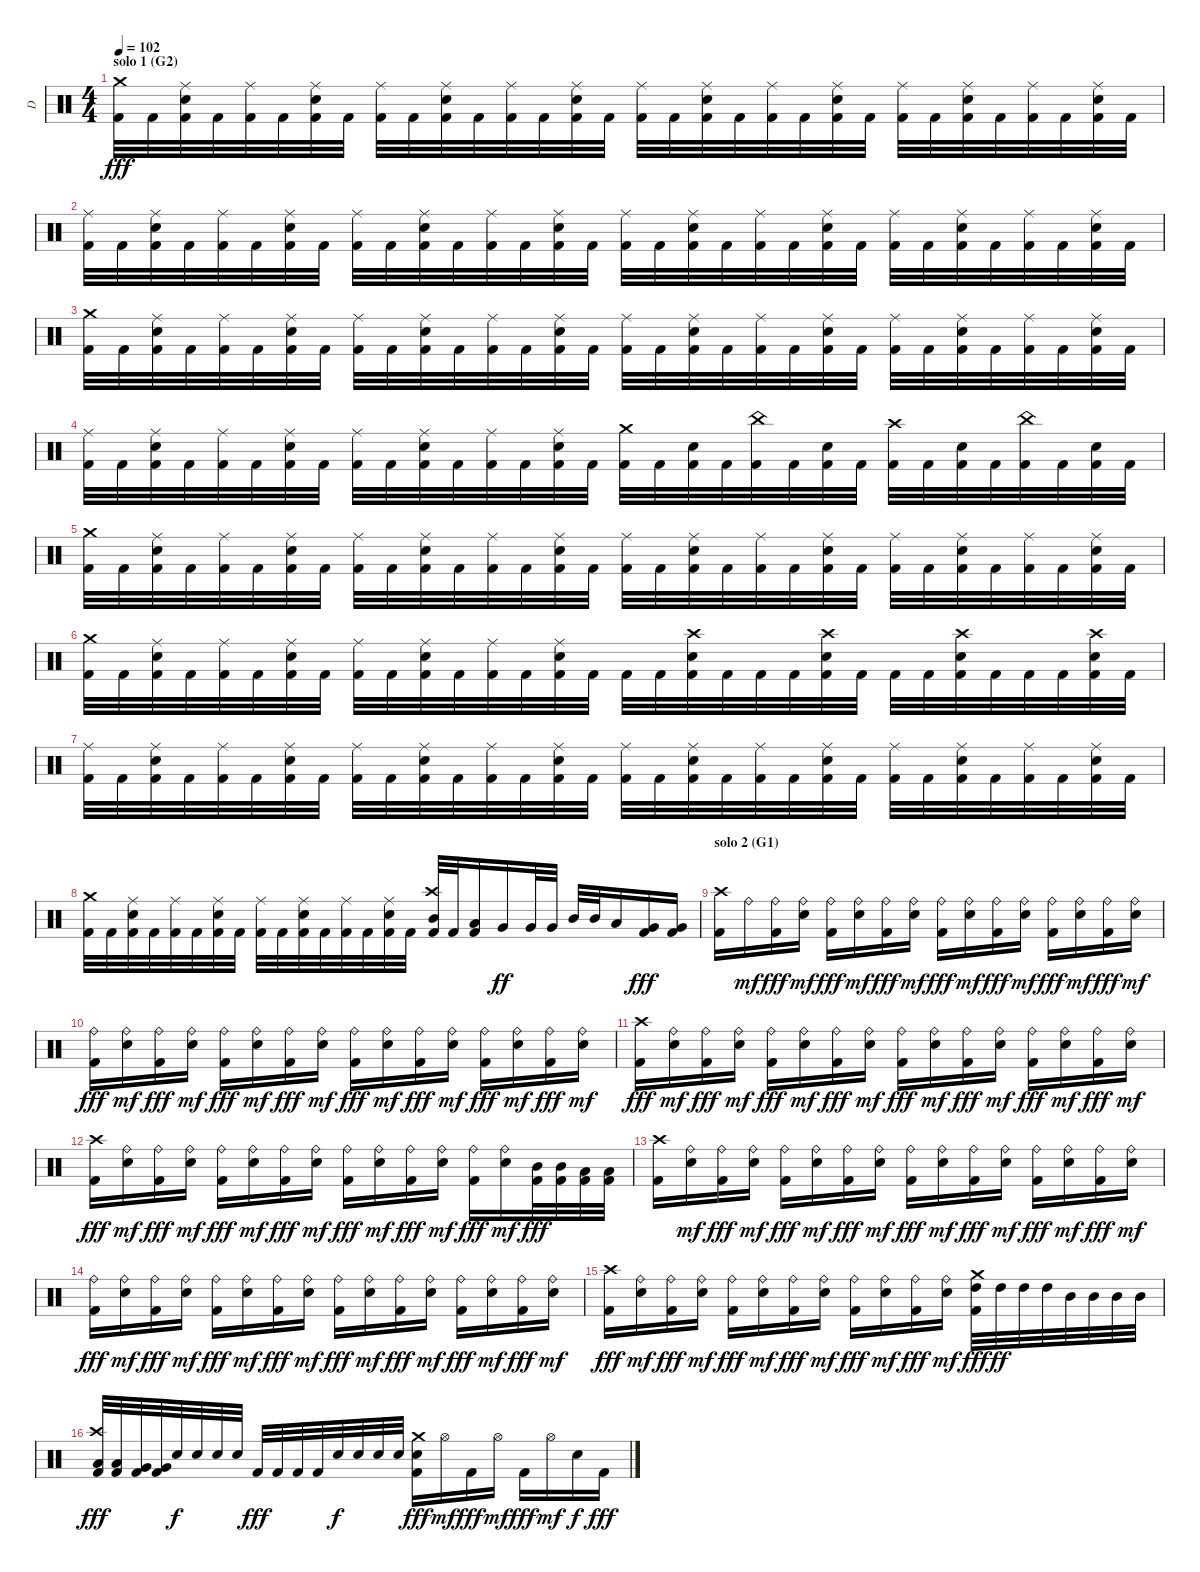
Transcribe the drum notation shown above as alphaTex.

\track ("D" "D") {instrument percussion}
\staff {score}
\articulation defaults
\ts (4 4)
\section ("" "solo 1 (G2)")
\tempo 102
\clef neutral
\ks c
("Crash medium (hit)" "Kick (hit) 2").32{dy fff} "Kick (hit) 2".32 ("Ride (middle)" "Snare (hit) 2" "Kick (hit) 2").32 "Kick (hit) 2".32 ("Ride (middle)" "Kick (hit) 2").32 "Kick (hit) 2".32 ("Ride (middle)" "Snare (hit) 2" "Kick (hit) 2").32 "Kick (hit) 2".32 ("Ride (middle)" "Kick (hit) 2").32 "Kick (hit) 2".32 ("Ride (middle)" "Snare (hit) 2" "Kick (hit) 2").32 "Kick (hit) 2".32 ("Ride (middle)" "Kick (hit) 2").32 "Kick (hit) 2".32 ("Ride (middle)" "Snare (hit) 2" "Kick (hit) 2").32 "Kick (hit) 2".32 ("Ride (middle)" "Kick (hit) 2").32 "Kick (hit) 2".32 ("Ride (middle)" "Snare (hit) 2" "Kick (hit) 2").32 "Kick (hit) 2".32 ("Ride (middle)" "Kick (hit) 2").32 "Kick (hit) 2".32 ("Ride (middle)" "Snare (hit) 2" "Kick (hit) 2").32 "Kick (hit) 2".32 ("Ride (middle)" "Kick (hit) 2").32 "Kick (hit) 2".32 ("Ride (middle)" "Snare (hit) 2" "Kick (hit) 2").32 "Kick (hit) 2".32 ("Ride (middle)" "Kick (hit) 2").32 "Kick (hit) 2".32 ("Ride (middle)" "Snare (hit) 2" "Kick (hit) 2").32 "Kick (hit) 2".32 |
("Ride (middle)" "Kick (hit) 2").32 "Kick (hit) 2".32 ("Ride (middle)" "Snare (hit) 2" "Kick (hit) 2").32 "Kick (hit) 2".32 ("Ride (middle)" "Kick (hit) 2").32 "Kick (hit) 2".32 ("Ride (middle)" "Snare (hit) 2" "Kick (hit) 2").32 "Kick (hit) 2".32 ("Ride (middle)" "Kick (hit) 2").32 "Kick (hit) 2".32 ("Ride (middle)" "Snare (hit) 2" "Kick (hit) 2").32 "Kick (hit) 2".32 ("Ride (middle)" "Kick (hit) 2").32 "Kick (hit) 2".32 ("Ride (middle)" "Snare (hit) 2" "Kick (hit) 2").32 "Kick (hit) 2".32 ("Ride (middle)" "Kick (hit) 2").32 "Kick (hit) 2".32 ("Ride (middle)" "Snare (hit) 2" "Kick (hit) 2").32 "Kick (hit) 2".32 ("Ride (middle)" "Kick (hit) 2").32 "Kick (hit) 2".32 ("Ride (middle)" "Snare (hit) 2" "Kick (hit) 2").32 "Kick (hit) 2".32 ("Ride (middle)" "Kick (hit) 2").32 "Kick (hit) 2".32 ("Ride (middle)" "Snare (hit) 2" "Kick (hit) 2").32 "Kick (hit) 2".32 ("Ride (middle)" "Kick (hit) 2").32 "Kick (hit) 2".32 ("Ride (middle)" "Snare (hit) 2" "Kick (hit) 2").32 "Kick (hit) 2".32 |
("Crash medium (hit)" "Kick (hit) 2").32 "Kick (hit) 2".32 ("Ride (middle)" "Snare (hit) 2" "Kick (hit) 2").32 "Kick (hit) 2".32 ("Ride (middle)" "Kick (hit) 2").32 "Kick (hit) 2".32 ("Ride (middle)" "Snare (hit) 2" "Kick (hit) 2").32 "Kick (hit) 2".32 ("Ride (middle)" "Kick (hit) 2").32 "Kick (hit) 2".32 ("Ride (middle)" "Snare (hit) 2" "Kick (hit) 2").32 "Kick (hit) 2".32 ("Ride (middle)" "Kick (hit) 2").32 "Kick (hit) 2".32 ("Ride (middle)" "Snare (hit) 2" "Kick (hit) 2").32 "Kick (hit) 2".32 ("Ride (middle)" "Kick (hit) 2").32 "Kick (hit) 2".32 ("Ride (middle)" "Snare (hit) 2" "Kick (hit) 2").32 "Kick (hit) 2".32 ("Ride (middle)" "Kick (hit) 2").32 "Kick (hit) 2".32 ("Ride (middle)" "Snare (hit) 2" "Kick (hit) 2").32 "Kick (hit) 2".32 ("Ride (middle)" "Kick (hit) 2").32 "Kick (hit) 2".32 ("Ride (middle)" "Snare (hit) 2" "Kick (hit) 2").32 "Kick (hit) 2".32 ("Ride (middle)" "Kick (hit) 2").32 "Kick (hit) 2".32 ("Ride (middle)" "Snare (hit) 2" "Kick (hit) 2").32 "Kick (hit) 2".32 |
("Ride (middle)" "Kick (hit) 2").32 "Kick (hit) 2".32 ("Ride (middle)" "Snare (hit) 2" "Kick (hit) 2").32 "Kick (hit) 2".32 ("Ride (middle)" "Kick (hit) 2").32 "Kick (hit) 2".32 ("Ride (middle)" "Snare (hit) 2" "Kick (hit) 2").32 "Kick (hit) 2".32 ("Ride (middle)" "Kick (hit) 2").32 "Kick (hit) 2".32 ("Ride (middle)" "Snare (hit) 2" "Kick (hit) 2").32 "Kick (hit) 2".32 ("Ride (middle)" "Kick (hit) 2").32 "Kick (hit) 2".32 ("Ride (middle)" "Snare (hit) 2" "Kick (hit) 2").32 "Kick (hit) 2".32 ("Crash medium (hit)" "Kick (hit) 2").32 "Kick (hit) 2".32 ("Snare (hit) 2" "Kick (hit) 2").32 "Kick (hit) 2".32 ("China (hit)" "Kick (hit) 2").32 "Kick (hit) 2".32 ("Snare (hit) 2" "Kick (hit) 2").32 "Kick (hit) 2".32 ("Crash high (hit)" "Kick (hit) 2").32 "Kick (hit) 2".32 ("Snare (hit) 2" "Kick (hit) 2").32 "Kick (hit) 2".32 ("China (hit)" "Kick (hit) 2").32 "Kick (hit) 2".32 ("Snare (hit) 2" "Kick (hit) 2").32 "Kick (hit) 2".32 |
("Crash medium (hit)" "Kick (hit) 2").32 "Kick (hit) 2".32 ("Ride (middle)" "Snare (hit) 2" "Kick (hit) 2").32 "Kick (hit) 2".32 ("Ride (middle)" "Kick (hit) 2").32 "Kick (hit) 2".32 ("Ride (middle)" "Snare (hit) 2" "Kick (hit) 2").32 "Kick (hit) 2".32 ("Ride (middle)" "Kick (hit) 2").32 "Kick (hit) 2".32 ("Ride (middle)" "Snare (hit) 2" "Kick (hit) 2").32 "Kick (hit) 2".32 ("Ride (middle)" "Kick (hit) 2").32 "Kick (hit) 2".32 ("Ride (middle)" "Snare (hit) 2" "Kick (hit) 2").32 "Kick (hit) 2".32 ("Ride (middle)" "Kick (hit) 2").32 "Kick (hit) 2".32 ("Ride (middle)" "Snare (hit) 2" "Kick (hit) 2").32 "Kick (hit) 2".32 ("Ride (middle)" "Kick (hit) 2").32 "Kick (hit) 2".32 ("Ride (middle)" "Snare (hit) 2" "Kick (hit) 2").32 "Kick (hit) 2".32 ("Ride (middle)" "Kick (hit) 2").32 "Kick (hit) 2".32 ("Ride (middle)" "Snare (hit) 2" "Kick (hit) 2").32 "Kick (hit) 2".32 ("Ride (middle)" "Kick (hit) 2").32 "Kick (hit) 2".32 ("Ride (middle)" "Snare (hit) 2" "Kick (hit) 2").32 "Kick (hit) 2".32 |
("Crash medium (hit)" "Kick (hit) 2").32 "Kick (hit) 2".32 ("Ride (middle)" "Snare (hit) 2" "Kick (hit) 2").32 "Kick (hit) 2".32 ("Ride (middle)" "Kick (hit) 2").32 "Kick (hit) 2".32 ("Ride (middle)" "Snare (hit) 2" "Kick (hit) 2").32 "Kick (hit) 2".32 ("Ride (middle)" "Kick (hit) 2").32 "Kick (hit) 2".32 ("Ride (middle)" "Snare (hit) 2" "Kick (hit) 2").32 "Kick (hit) 2".32 ("Ride (middle)" "Kick (hit) 2").32 "Kick (hit) 2".32 ("Ride (middle)" "Snare (hit) 2" "Kick (hit) 2").32 "Kick (hit) 2".32 "Kick (hit) 2".32 "Kick (hit) 2".32 ("Crash high (hit)" "Snare (hit) 2" "Kick (hit) 2").32 "Kick (hit) 2".32 "Kick (hit) 2".32 "Kick (hit) 2".32 ("Crash high (hit)" "Snare (hit) 2" "Kick (hit) 2").32 "Kick (hit) 2".32 "Kick (hit) 2".32 "Kick (hit) 2".32 ("Crash high (hit)" "Snare (hit) 2" "Kick (hit) 2").32 "Kick (hit) 2".32 "Kick (hit) 2".32 "Kick (hit) 2".32 ("Crash high (hit)" "Snare (hit) 2" "Kick (hit) 2").32 "Kick (hit) 2".32 |
("Ride (middle)" "Kick (hit) 2").32 "Kick (hit) 2".32 ("Ride (middle)" "Snare (hit) 2" "Kick (hit) 2").32 "Kick (hit) 2".32 ("Ride (middle)" "Kick (hit) 2").32 "Kick (hit) 2".32 ("Ride (middle)" "Snare (hit) 2" "Kick (hit) 2").32 "Kick (hit) 2".32 ("Ride (middle)" "Kick (hit) 2").32 "Kick (hit) 2".32 ("Ride (middle)" "Snare (hit) 2" "Kick (hit) 2").32 "Kick (hit) 2".32 ("Ride (middle)" "Kick (hit) 2").32 "Kick (hit) 2".32 ("Ride (middle)" "Snare (hit) 2" "Kick (hit) 2").32 "Kick (hit) 2".32 ("Ride (middle)" "Kick (hit) 2").32 "Kick (hit) 2".32 ("Ride (middle)" "Snare (hit) 2" "Kick (hit) 2").32 "Kick (hit) 2".32 ("Ride (middle)" "Kick (hit) 2").32 "Kick (hit) 2".32 ("Ride (middle)" "Snare (hit) 2" "Kick (hit) 2").32 "Kick (hit) 2".32 ("Ride (middle)" "Kick (hit) 2").32 "Kick (hit) 2".32 ("Ride (middle)" "Snare (hit) 2" "Kick (hit) 2").32 "Kick (hit) 2".32 ("Ride (middle)" "Kick (hit) 2").32 "Kick (hit) 2".32 ("Ride (middle)" "Snare (hit) 2" "Kick (hit) 2").32 "Kick (hit) 2".32 |
("Crash medium (hit)" "Kick (hit) 2").32 "Kick (hit) 2".32 ("Ride (middle)" "Snare (hit) 2" "Kick (hit) 2").32 "Kick (hit) 2".32 ("Ride (middle)" "Kick (hit) 2").32 "Kick (hit) 2".32 ("Ride (middle)" "Snare (hit) 2" "Kick (hit) 2").32 "Kick (hit) 2".32 ("Ride (middle)" "Kick (hit) 2").32 "Kick (hit) 2".32 ("Ride (middle)" "Snare (hit) 2" "Kick (hit) 2").32 "Kick (hit) 2".32 ("Ride (middle)" "Kick (hit) 2").32 "Kick (hit) 2".32 ("Ride (middle)" "Snare (hit) 2" "Kick (hit) 2").32 "Kick (hit) 2".32 ("Crash high (hit)" "Mid Tom (hit)" "Kick (hit) 2").32 "Kick (hit) 2".32 ("Low Tom (hit)" "Kick (hit) 2").16 "Very Low Tom (hit)".16{dy ff} "Very Low Tom (hit)".32 "Very Low Tom (hit)".32 "Mid Tom (hit)".32 "Mid Tom (hit)".32 "Low Tom (hit)".16 ("Very Low Tom (hit)" "Kick (hit) 2").16{dy fff} ("Very Low Tom (hit)" "Kick (hit) 2").16 |
\section ("" "solo 2 (G1)")
("Crash high (hit)" "Kick (hit) 2").16 "Ride (bell)".16{dy mf} ("Ride (bell)" "Kick (hit) 2").16{dy fff} ("Ride (bell)" "Snare (hit) 2").16{dy mf} ("Ride (bell)" "Kick (hit) 2").16{dy fff} ("Ride (bell)" "Snare (hit) 2").16{dy mf} ("Ride (bell)" "Kick (hit) 2").16{dy fff} ("Ride (bell)" "Snare (hit) 2").16{dy mf} ("Ride (bell)" "Kick (hit) 2").16{dy fff} ("Ride (bell)" "Snare (hit) 2").16{dy mf} ("Ride (bell)" "Kick (hit) 2").16{dy fff} ("Ride (bell)" "Snare (hit) 2").16{dy mf} ("Ride (bell)" "Kick (hit) 2").16{dy fff} ("Ride (bell)" "Snare (hit) 2").16{dy mf} ("Ride (bell)" "Kick (hit) 2").16{dy fff} ("Ride (bell)" "Snare (hit) 2").16{dy mf} |
("Ride (bell)" "Kick (hit) 2").16{dy fff} ("Ride (bell)" "Snare (hit) 2").16{dy mf} ("Ride (bell)" "Kick (hit) 2").16{dy fff} ("Ride (bell)" "Snare (hit) 2").16{dy mf} ("Ride (bell)" "Kick (hit) 2").16{dy fff} ("Ride (bell)" "Snare (hit) 2").16{dy mf} ("Ride (bell)" "Kick (hit) 2").16{dy fff} ("Ride (bell)" "Snare (hit) 2").16{dy mf} ("Ride (bell)" "Kick (hit) 2").16{dy fff} ("Ride (bell)" "Snare (hit) 2").16{dy mf} ("Ride (bell)" "Kick (hit) 2").16{dy fff} ("Ride (bell)" "Snare (hit) 2").16{dy mf} ("Ride (bell)" "Kick (hit) 2").16{dy fff} ("Ride (bell)" "Snare (hit) 2").16{dy mf} ("Ride (bell)" "Kick (hit) 2").16{dy fff} ("Ride (bell)" "Snare (hit) 2").16{dy mf} |
("Crash high (hit)" "Kick (hit) 2").16{dy fff} ("Ride (bell)" "Snare (hit) 2").16{dy mf} ("Ride (bell)" "Kick (hit) 2").16{dy fff} ("Ride (bell)" "Snare (hit) 2").16{dy mf} ("Ride (bell)" "Kick (hit) 2").16{dy fff} ("Ride (bell)" "Snare (hit) 2").16{dy mf} ("Ride (bell)" "Kick (hit) 2").16{dy fff} ("Ride (bell)" "Snare (hit) 2").16{dy mf} ("Ride (bell)" "Kick (hit) 2").16{dy fff} ("Ride (bell)" "Snare (hit) 2").16{dy mf} ("Ride (bell)" "Kick (hit) 2").16{dy fff} ("Ride (bell)" "Snare (hit) 2").16{dy mf} ("Ride (bell)" "Kick (hit) 2").16{dy fff} ("Ride (bell)" "Snare (hit) 2").16{dy mf} ("Ride (bell)" "Kick (hit) 2").16{dy fff} ("Ride (bell)" "Snare (hit) 2").16{dy mf} |
("Crash high (hit)" "Kick (hit) 2").16{dy fff} ("Ride (bell)" "Snare (hit) 2").16{dy mf} ("Ride (bell)" "Kick (hit) 2").16{dy fff} ("Ride (bell)" "Snare (hit) 2").16{dy mf} ("Ride (bell)" "Kick (hit) 2").16{dy fff} ("Ride (bell)" "Snare (hit) 2").16{dy mf} ("Ride (bell)" "Kick (hit) 2").16{dy fff} ("Ride (bell)" "Snare (hit) 2").16{dy mf} ("Ride (bell)" "Kick (hit) 2").16{dy fff} ("Ride (bell)" "Snare (hit) 2").16{dy mf} ("Ride (bell)" "Kick (hit) 2").16{dy fff} ("Ride (bell)" "Snare (hit) 2").16{dy mf} ("Ride (bell)" "Kick (hit) 2").16{dy fff} ("Ride (bell)" "Snare (hit) 2").16{dy mf} ("Mid Tom (hit)" "Kick (hit) 2").32{dy fff} ("Mid Tom (hit)" "Kick (hit) 2").32 ("Low Tom (hit)" "Kick (hit) 2").32 ("Low Tom (hit)" "Kick (hit) 2").32 |
("Crash high (hit)" "Kick (hit) 2").16 ("Ride (bell)" "Snare (hit) 2").16{dy mf} ("Ride (bell)" "Kick (hit) 2").16{dy fff} ("Ride (bell)" "Snare (hit) 2").16{dy mf} ("Ride (bell)" "Kick (hit) 2").16{dy fff} ("Ride (bell)" "Snare (hit) 2").16{dy mf} ("Ride (bell)" "Kick (hit) 2").16{dy fff} ("Ride (bell)" "Snare (hit) 2").16{dy mf} ("Ride (bell)" "Kick (hit) 2").16{dy fff} ("Ride (bell)" "Snare (hit) 2").16{dy mf} ("Ride (bell)" "Kick (hit) 2").16{dy fff} ("Ride (bell)" "Snare (hit) 2").16{dy mf} ("Ride (bell)" "Kick (hit) 2").16{dy fff} ("Ride (bell)" "Snare (hit) 2").16{dy mf} ("Ride (bell)" "Kick (hit) 2").16{dy fff} ("Ride (bell)" "Snare (hit) 2").16{dy mf} |
("Ride (bell)" "Kick (hit) 2").16{dy fff} ("Ride (bell)" "Snare (hit) 2").16{dy mf} ("Ride (bell)" "Kick (hit) 2").16{dy fff} ("Ride (bell)" "Snare (hit) 2").16{dy mf} ("Ride (bell)" "Kick (hit) 2").16{dy fff} ("Ride (bell)" "Snare (hit) 2").16{dy mf} ("Ride (bell)" "Kick (hit) 2").16{dy fff} ("Ride (bell)" "Snare (hit) 2").16{dy mf} ("Ride (bell)" "Kick (hit) 2").16{dy fff} ("Ride (bell)" "Snare (hit) 2").16{dy mf} ("Ride (bell)" "Kick (hit) 2").16{dy fff} ("Ride (bell)" "Snare (hit) 2").16{dy mf} ("Ride (bell)" "Kick (hit) 2").16{dy fff} ("Ride (bell)" "Snare (hit) 2").16{dy mf} ("Ride (bell)" "Kick (hit) 2").16{dy fff} ("Ride (bell)" "Snare (hit) 2").16{dy mf} |
("Crash high (hit)" "Kick (hit) 2").16{dy fff} ("Ride (bell)" "Snare (hit) 2").16{dy mf} ("Ride (bell)" "Kick (hit) 2").16{dy fff} ("Ride (bell)" "Snare (hit) 2").16{dy mf} ("Ride (bell)" "Kick (hit) 2").16{dy fff} ("Ride (bell)" "Snare (hit) 2").16{dy mf} ("Ride (bell)" "Kick (hit) 2").16{dy fff} ("Ride (bell)" "Snare (hit) 2").16{dy mf} ("Ride (bell)" "Kick (hit) 2").16{dy fff} ("Ride (bell)" "Snare (hit) 2").16{dy mf} ("Ride (bell)" "Kick (hit) 2").16{dy fff} ("Ride (bell)" "Snare (hit) 2").16{dy mf} ("Crash medium (hit)" "High Tom (hit)" "Kick (hit) 2").32{dy fff} "High Tom (hit)".32{dy ff} "High Tom (hit)".32 "High Tom (hit)".32 "Mid Tom (hit)".32 "Mid Tom (hit)".32 "Mid Tom (hit)".32 "Mid Tom (hit)".32 |
("Crash high (hit)" "Low Tom (hit)" "Kick (hit) 2").32{dy fff} ("Low Tom (hit)" "Kick (hit) 2").32 ("Very Low Tom (hit)" "Kick (hit) 2").32 ("Very Low Tom (hit)" "Kick (hit) 2").32 "Snare (hit) 2".32{dy f} "Snare (hit) 2".32 "Snare (hit) 2".32 "Snare (hit) 2".32 "Kick (hit) 2".32{dy fff} "Kick (hit) 2".32 "Kick (hit) 2".32 "Kick (hit) 2".32 "Snare (hit) 2".32{dy f} "Snare (hit) 2".32 "Snare (hit) 2".32 "Snare (hit) 2".32 ("Crash medium (hit)" "Snare (hit) 2" "Kick (hit) 2").16{dy fff} "Hi-Hat (open)".16{dy mf} "Kick (hit) 2".16{dy fff} "Hi-Hat (open)".16{dy mf} "Kick (hit) 2".16{dy fff} "Hi-Hat (open)".16{dy mf} "Snare (hit) 2".16{dy f} "Kick (hit) 2".16{dy fff}
